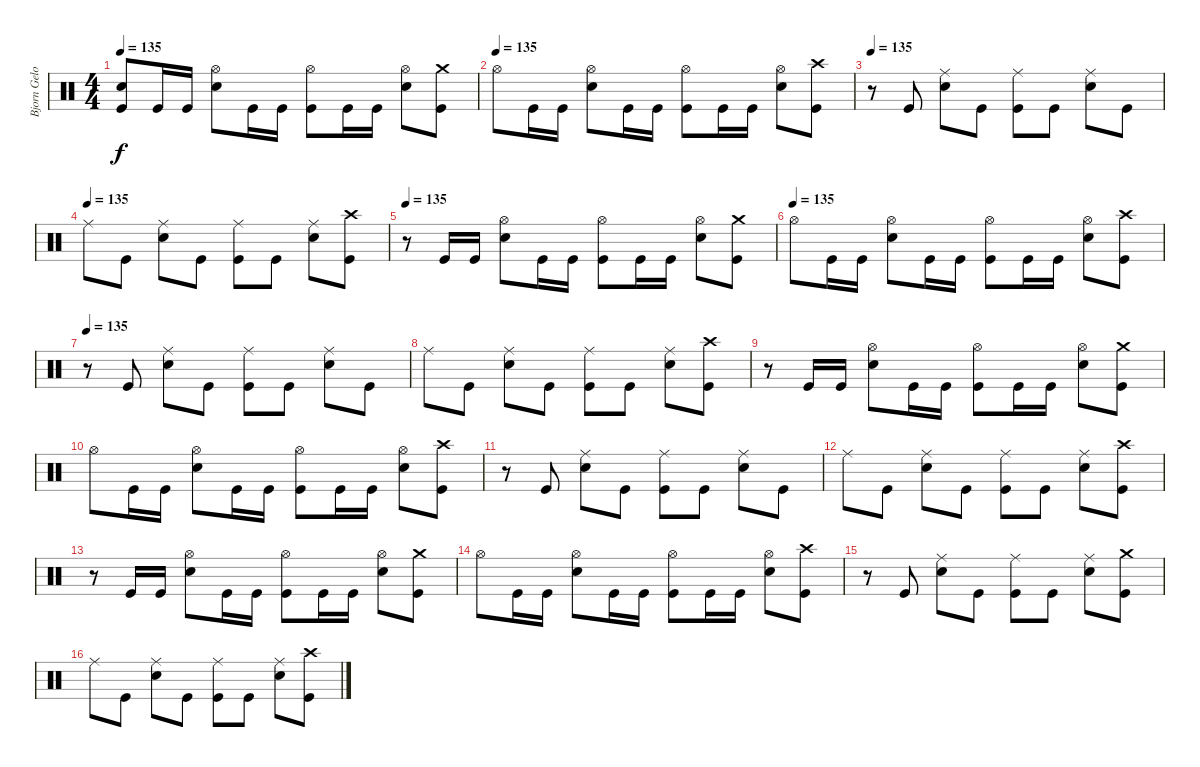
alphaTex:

\track ("Bjorn Gelotte-Drum" "Bjorn Gelo") {instrument percussion}
\staff {score}
\articulation defaults
\ts (4 4)
\tempo 135
\clef neutral
\ks c
("Kick (hit)"{t} "Snare (hit)"{t}).8{dy f} "Kick (hit)".16 "Kick (hit)".16 ("Electric Snare (hit)" "Hi-Hat (open)").8 "Kick (hit)".16 "Kick (hit)".16 ("Kick (hit)" "Hi-Hat (open)").8 "Kick (hit)".16 "Kick (hit)".16 ("Electric Snare (hit)" "Hi-Hat (open)").8 ("Kick (hit)" "Crash medium (hit)").8 |
\tempo (135)
"Hi-Hat (open)".8 "Kick (hit)".16 "Kick (hit)".16 ("Electric Snare (hit)" "Hi-Hat (open)").8 "Kick (hit)".16 "Kick (hit)".16 ("Kick (hit)" "Hi-Hat (open)").8 "Kick (hit)".16 "Kick (hit)".16 ("Electric Snare (hit)" "Hi-Hat (open)").8 ("Kick (hit)" "Crash high (hit)").8 |
\tempo 135
r.8 "Kick (hit)".8 ("Electric Snare (hit)" "Ride (middle)").8 "Kick (hit)".8 ("Kick (hit)" "Ride (middle)").8 "Kick (hit)".8 ("Electric Snare (hit)" "Ride (middle)").8 "Kick (hit)".8 |
\tempo (135)
"Ride (middle)".8 "Kick (hit)".8 ("Electric Snare (hit)" "Ride (middle)").8 "Kick (hit)".8 ("Kick (hit)" "Ride (middle)").8 "Kick (hit)".8 ("Electric Snare (hit)" "Ride (middle)").8 ("Kick (hit)" "Crash high (hit)").8 |
\tempo 135
r.8 "Kick (hit)".16 "Kick (hit)".16 ("Electric Snare (hit)" "Hi-Hat (open)").8 "Kick (hit)".16 "Kick (hit)".16 ("Kick (hit)" "Hi-Hat (open)").8 "Kick (hit)".16 "Kick (hit)".16 ("Electric Snare (hit)" "Hi-Hat (open)").8 ("Kick (hit)" "Crash medium (hit)").8 |
\tempo (135)
"Hi-Hat (open)".8 "Kick (hit)".16 "Kick (hit)".16 ("Electric Snare (hit)" "Hi-Hat (open)").8 "Kick (hit)".16 "Kick (hit)".16 ("Kick (hit)" "Hi-Hat (open)").8 "Kick (hit)".16 "Kick (hit)".16 ("Electric Snare (hit)" "Hi-Hat (open)").8 ("Kick (hit)" "Crash high (hit)").8 |
\tempo 135
r.8 "Kick (hit)".8 ("Electric Snare (hit)" "Ride (middle)").8 "Kick (hit)".8 ("Kick (hit)" "Ride (middle)").8 "Kick (hit)".8 ("Electric Snare (hit)" "Ride (middle)").8 "Kick (hit)".8 |
"Ride (middle)".8 "Kick (hit)".8 ("Electric Snare (hit)" "Ride (middle)").8 "Kick (hit)".8 ("Kick (hit)" "Ride (middle)").8 "Kick (hit)".8 ("Electric Snare (hit)" "Ride (middle)").8 ("Kick (hit)" "Crash high (hit)").8 |
r.8 "Kick (hit)".16 "Kick (hit)".16 ("Electric Snare (hit)" "Hi-Hat (open)").8 "Kick (hit)".16 "Kick (hit)".16 ("Kick (hit)" "Hi-Hat (open)").8 "Kick (hit)".16 "Kick (hit)".16 ("Electric Snare (hit)" "Hi-Hat (open)").8 ("Kick (hit)" "Crash medium (hit)").8 |
"Hi-Hat (open)".8 "Kick (hit)".16 "Kick (hit)".16 ("Electric Snare (hit)" "Hi-Hat (open)").8 "Kick (hit)".16 "Kick (hit)".16 ("Kick (hit)" "Hi-Hat (open)").8 "Kick (hit)".16 "Kick (hit)".16 ("Electric Snare (hit)" "Hi-Hat (open)").8 ("Kick (hit)" "Crash high (hit)").8 |
r.8 "Kick (hit)".8 ("Electric Snare (hit)" "Ride (middle)").8 "Kick (hit)".8 ("Kick (hit)" "Ride (middle)").8 "Kick (hit)".8 ("Electric Snare (hit)" "Ride (middle)").8 "Kick (hit)".8 |
"Ride (middle)".8 "Kick (hit)".8 ("Electric Snare (hit)" "Ride (middle)").8 "Kick (hit)".8 ("Kick (hit)" "Ride (middle)").8 "Kick (hit)".8 ("Electric Snare (hit)" "Ride (middle)").8 ("Kick (hit)" "Crash high (hit)").8 |
r.8 "Kick (hit)".16 "Kick (hit)".16 ("Electric Snare (hit)" "Hi-Hat (open)").8 "Kick (hit)".16 "Kick (hit)".16 ("Kick (hit)" "Hi-Hat (open)").8 "Kick (hit)".16 "Kick (hit)".16 ("Electric Snare (hit)" "Hi-Hat (open)").8 ("Kick (hit)" "Crash medium (hit)").8 |
"Hi-Hat (open)".8 "Kick (hit)".16 "Kick (hit)".16 ("Electric Snare (hit)" "Hi-Hat (open)").8 "Kick (hit)".16 "Kick (hit)".16 ("Kick (hit)" "Hi-Hat (open)").8 "Kick (hit)".16 "Kick (hit)".16 ("Electric Snare (hit)" "Hi-Hat (open)").8 ("Kick (hit)" "Crash high (hit)").8 |
r.8 "Kick (hit)".8 ("Electric Snare (hit)" "Ride (middle)").8 "Kick (hit)".8 ("Kick (hit)" "Ride (middle)").8 "Kick (hit)".8 ("Electric Snare (hit)" "Ride (middle)").8 ("Kick (hit)" "Crash medium (hit)").8 |
"Ride (middle)".8 "Kick (hit)".8 ("Electric Snare (hit)" "Ride (middle)").8 "Kick (hit)".8 ("Kick (hit)" "Ride (middle)").8 "Kick (hit)".8 ("Electric Snare (hit)" "Ride (middle)").8 ("Kick (hit)" "Crash high (hit)").8
